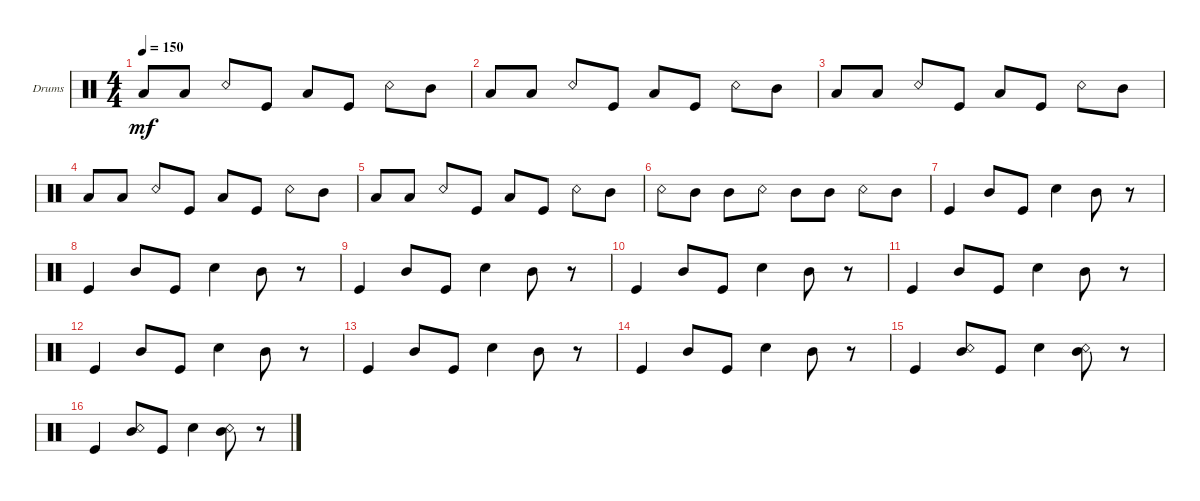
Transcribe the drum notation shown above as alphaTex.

\defaultSystemsLayout 4
\bracketExtendMode groupsimilarinstruments
\firstSystemTrackNameOrientation horizontal
\otherSystemsTrackNameOrientation horizontal
\track ("Drumkit" "Drums") {instrument percussion}
\staff {score}
\articulation defaults
\ts (4 4)
\tempo 150
\clef neutral
\ks c "Low Tom (hit)".8{dy mf} "Low Tom (hit)".8 "Snare (rim shot)".8 "Kick (hit)".8 "Low Tom (hit)".8 "Kick (hit)".8 "Snare (rim shot)".8 "Mid Tom (hit)".8
|
"Low Tom (hit)".8 "Low Tom (hit)".8 "Snare (rim shot)".8 "Kick (hit)".8 "Low Tom (hit)".8 "Kick (hit)".8 "Snare (rim shot)".8 "Mid Tom (hit)".8 |
"Low Tom (hit)".8 "Low Tom (hit)".8 "Snare (rim shot)".8 "Kick (hit)".8 "Low Tom (hit)".8 "Kick (hit)".8 "Snare (rim shot)".8 "Mid Tom (hit)".8 |
"Low Tom (hit)".8 "Low Tom (hit)".8 "Snare (rim shot)".8 "Kick (hit)".8 "Low Tom (hit)".8 "Kick (hit)".8 "Snare (rim shot)".8 "Mid Tom (hit)".8 |
"Low Tom (hit)".8 "Low Tom (hit)".8 "Snare (rim shot)".8 "Kick (hit)".8 "Low Tom (hit)".8 "Kick (hit)".8 "Snare (rim shot)".8 "Mid Tom (hit)".8 |
"Snare (rim shot)".8 "Mid Tom (hit)".8 "Mid Tom (hit)".8 "Snare (rim shot)".8 "Mid Tom (hit)".8 "Mid Tom (hit)".8 "Snare (rim shot)".8 "Mid Tom (hit)".8 |
"Kick (hit)".4 "Mid Tom (hit)".8 "Kick (hit)".8 "Snare (hit) 2".4 "Mid Tom (hit)".8 r.8 |
"Kick (hit)".4 "Mid Tom (hit)".8 "Kick (hit)".8 "Snare (hit) 2".4 "Mid Tom (hit)".8 r.8 |
"Kick (hit)".4 "Mid Tom (hit)".8 "Kick (hit)".8 "Snare (hit) 2".4 "Mid Tom (hit)".8 r.8 |
"Kick (hit)".4 "Mid Tom (hit)".8 "Kick (hit)".8 "Snare (hit) 2".4 "Mid Tom (hit)".8 r.8 |
"Kick (hit)".4 "Mid Tom (hit)".8 "Kick (hit)".8 "Snare (hit) 2".4 "Mid Tom (hit)".8 r.8 |
"Kick (hit)".4 "Mid Tom (hit)".8 "Kick (hit)".8 "Snare (hit) 2".4 "Mid Tom (hit)".8 r.8 |
"Kick (hit)".4 "Mid Tom (hit)".8 "Kick (hit)".8 "Snare (hit) 2".4 "Mid Tom (hit)".8 r.8 |
"Kick (hit)".4 "Mid Tom (hit)".8 "Kick (hit)".8 "Snare (hit) 2".4 "Mid Tom (hit)".8 r.8 |
"Kick (hit)".4 ("Mid Tom (hit)" "Snare (rim shot)").8 "Kick (hit)".8 "Snare (hit) 2".4 ("Mid Tom (hit)" "Snare (rim shot)").8 r.8 |
"Kick (hit)".4 ("Mid Tom (hit)" "Snare (rim shot)").8 "Kick (hit)".8 "Snare (hit) 2".4 ("Mid Tom (hit)" "Snare (rim shot)").8 r.8
